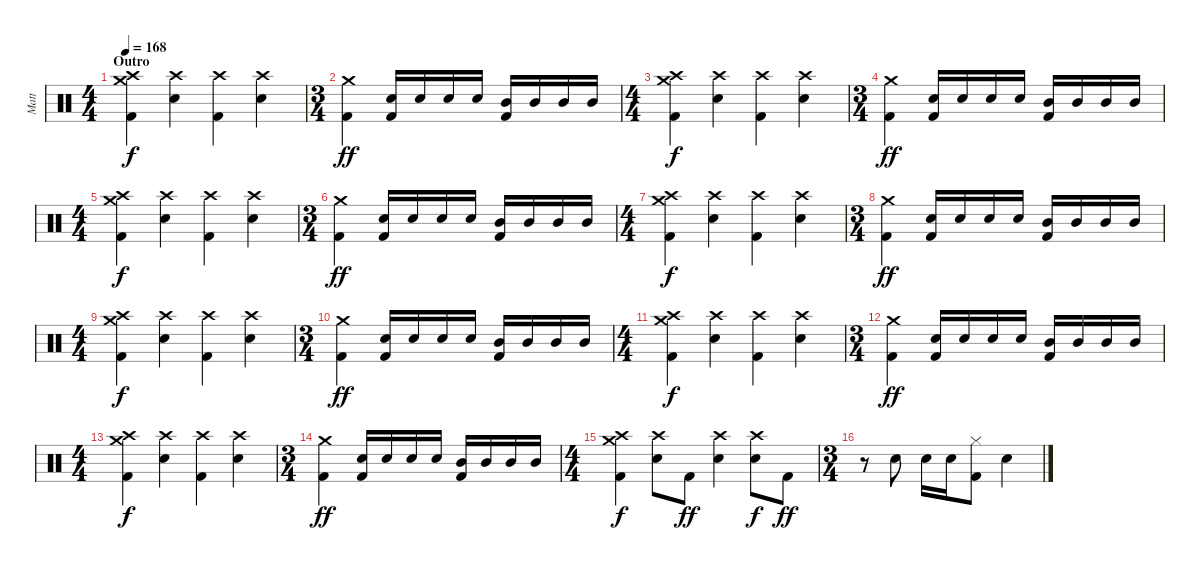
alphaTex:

\track ("Matt" "Matt") {instrument percussion}
\staff {score}
\articulation defaults
\ts (4 4)
\section ("" "Outro")
\tempo 168
\clef neutral
\ks c
("Crash medium (hit)" "Crash high (hit)" "Kick (hit) 2").4{dy f} ("Crash high (hit)" "Electric Snare (hit)").4 ("Crash high (hit)" "Kick (hit) 2").4 ("Crash high (hit)" "Electric Snare (hit)").4 |
\ts (3 4)
("Crash medium (hit)" "Kick (hit) 2").4{dy ff} ("Electric Snare (hit)" "Kick (hit) 2").16 "Electric Snare (hit)".16 "Electric Snare (hit)".16 "Electric Snare (hit)".16 ("Mid Tom (hit)" "Kick (hit) 2").16 "Mid Tom (hit)".16 "Mid Tom (hit)".16 "Mid Tom (hit)".16 |
\ts (4 4)
("Crash medium (hit)" "Crash high (hit)" "Kick (hit) 2").4{dy f} ("Crash high (hit)" "Electric Snare (hit)").4 ("Crash high (hit)" "Kick (hit) 2").4 ("Crash high (hit)" "Electric Snare (hit)").4 |
\ts (3 4)
("Crash medium (hit)" "Kick (hit) 2").4{dy ff} ("Electric Snare (hit)" "Kick (hit) 2").16 "Electric Snare (hit)".16 "Electric Snare (hit)".16 "Electric Snare (hit)".16 ("Mid Tom (hit)" "Kick (hit) 2").16 "Mid Tom (hit)".16 "Mid Tom (hit)".16 "Mid Tom (hit)".16 |
\ts (4 4)
("Crash medium (hit)" "Crash high (hit)" "Kick (hit) 2").4{dy f} ("Crash high (hit)" "Electric Snare (hit)").4 ("Crash high (hit)" "Kick (hit) 2").4 ("Crash high (hit)" "Electric Snare (hit)").4 |
\ts (3 4)
("Crash medium (hit)" "Kick (hit) 2").4{dy ff} ("Electric Snare (hit)" "Kick (hit) 2").16 "Electric Snare (hit)".16 "Electric Snare (hit)".16 "Electric Snare (hit)".16 ("Mid Tom (hit)" "Kick (hit) 2").16 "Mid Tom (hit)".16 "Mid Tom (hit)".16 "Mid Tom (hit)".16 |
\ts (4 4)
("Crash medium (hit)" "Crash high (hit)" "Kick (hit) 2").4{dy f} ("Crash high (hit)" "Electric Snare (hit)").4 ("Crash high (hit)" "Kick (hit) 2").4 ("Crash high (hit)" "Electric Snare (hit)").4 |
\ts (3 4)
("Crash medium (hit)" "Kick (hit) 2").4{dy ff} ("Electric Snare (hit)" "Kick (hit) 2").16 "Electric Snare (hit)".16 "Electric Snare (hit)".16 "Electric Snare (hit)".16 ("Mid Tom (hit)" "Kick (hit) 2").16 "Mid Tom (hit)".16 "Mid Tom (hit)".16 "Mid Tom (hit)".16 |
\ts (4 4)
("Crash medium (hit)" "Crash high (hit)" "Kick (hit) 2").4{dy f} ("Crash high (hit)" "Electric Snare (hit)").4 ("Crash high (hit)" "Kick (hit) 2").4 ("Crash high (hit)" "Electric Snare (hit)").4 |
\ts (3 4)
("Crash medium (hit)" "Kick (hit) 2").4{dy ff} ("Electric Snare (hit)" "Kick (hit) 2").16 "Electric Snare (hit)".16 "Electric Snare (hit)".16 "Electric Snare (hit)".16 ("Mid Tom (hit)" "Kick (hit) 2").16 "Mid Tom (hit)".16 "Mid Tom (hit)".16 "Mid Tom (hit)".16 |
\ts (4 4)
("Crash medium (hit)" "Crash high (hit)" "Kick (hit) 2").4{dy f} ("Crash high (hit)" "Electric Snare (hit)").4 ("Crash high (hit)" "Kick (hit) 2").4 ("Crash high (hit)" "Electric Snare (hit)").4 |
\ts (3 4)
("Crash medium (hit)" "Kick (hit) 2").4{dy ff} ("Electric Snare (hit)" "Kick (hit) 2").16 "Electric Snare (hit)".16 "Electric Snare (hit)".16 "Electric Snare (hit)".16 ("Mid Tom (hit)" "Kick (hit) 2").16 "Mid Tom (hit)".16 "Mid Tom (hit)".16 "Mid Tom (hit)".16 |
\ts (4 4)
("Crash medium (hit)" "Crash high (hit)" "Kick (hit) 2").4{dy f} ("Crash high (hit)" "Electric Snare (hit)").4 ("Crash high (hit)" "Kick (hit) 2").4 ("Crash high (hit)" "Electric Snare (hit)").4 |
\ts (3 4)
("Crash medium (hit)" "Kick (hit) 2").4{dy ff} ("Electric Snare (hit)" "Kick (hit) 2").16 "Electric Snare (hit)".16 "Electric Snare (hit)".16 "Electric Snare (hit)".16 ("Mid Tom (hit)" "Kick (hit) 2").16 "Mid Tom (hit)".16 "Mid Tom (hit)".16 "Mid Tom (hit)".16 |
\ts (4 4)
("Crash medium (hit)" "Crash high (hit)" "Kick (hit) 2").4{dy f} ("Crash high (hit)" "Electric Snare (hit)").8 "Kick (hit) 2".8{dy ff} ("Crash high (hit)" "Electric Snare (hit)").4 ("Crash high (hit)" "Electric Snare (hit)").8{dy f} "Kick (hit) 2".8{dy ff} |
\ts (3 4)
r.8 "Electric Snare (hit)".8 "Electric Snare (hit)".16 "Electric Snare (hit)".16 ("Hi-Hat (closed)" "Kick (hit) 2").8 "Electric Snare (hit)".4
